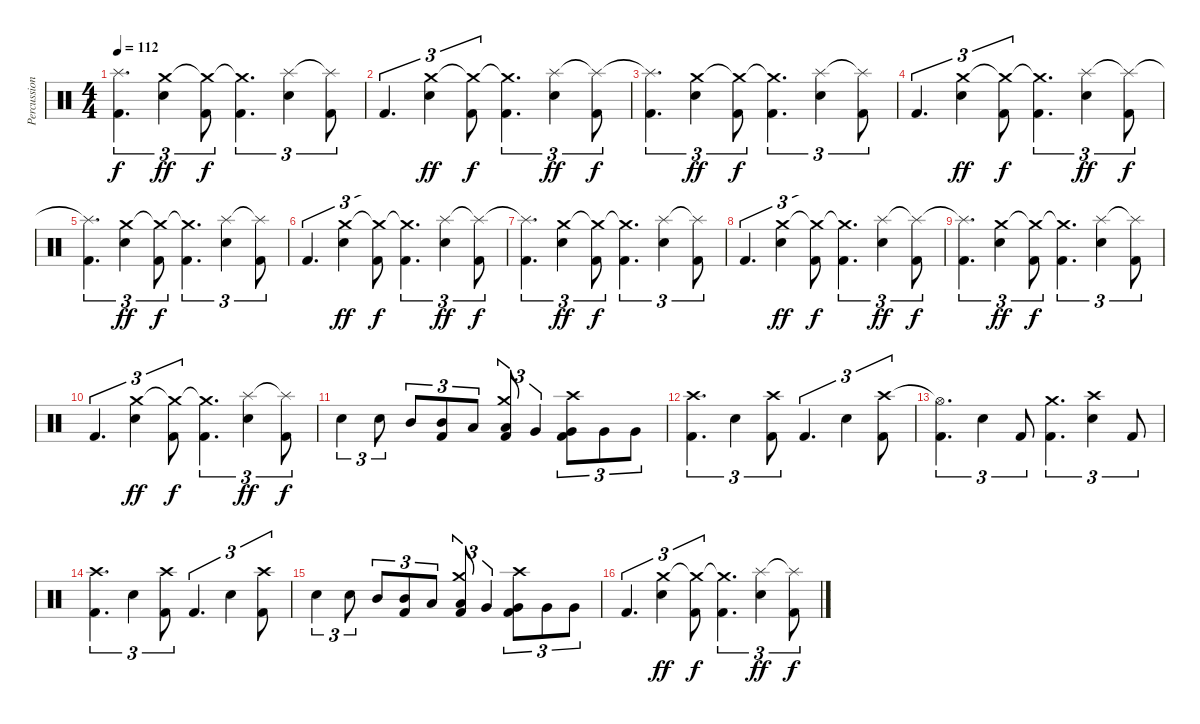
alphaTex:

\track ("Percussioni" "Percussion") {instrument percussion}
\staff {score}
\articulation defaults
\ts (4 4)
\tempo 112
\clef neutral
\ks c
("Splash (hit)"{t} "Kick (hit) 2").4{d tu (3 2) dy f} ("Crash medium (hit)" "Snare (hit) 2").4{tu (3 2) dy ff} ("Crash medium (hit)"{t} "Kick (hit) 2").8{tu (3 2) dy f} ("Crash medium (hit)"{t} "Kick (hit) 2").4{d tu (3 2)} ("Splash (hit)" "Snare (hit) 2").4{tu (3 2)} ("Splash (hit)"{t} "Kick (hit) 2").8{tu (3 2)} |
"Kick (hit) 2".4{d tu (3 2)} ("Crash medium (hit)" "Snare (hit) 2").4{tu (3 2) dy ff} ("Crash medium (hit)"{t} "Kick (hit) 2").8{tu (3 2) dy f} ("Crash medium (hit)"{t} "Kick (hit) 2").4{d tu (3 2)} ("Splash (hit)" "Snare (hit) 2").4{tu (3 2) dy ff} ("Splash (hit)"{t} "Kick (hit) 2").8{tu (3 2) dy f} |
("Splash (hit)"{t} "Kick (hit) 2").4{d tu (3 2)} ("Crash medium (hit)" "Snare (hit) 2").4{tu (3 2) dy ff} ("Crash medium (hit)"{t} "Kick (hit) 2").8{tu (3 2) dy f} ("Crash medium (hit)"{t} "Kick (hit) 2").4{d tu (3 2)} ("Splash (hit)" "Snare (hit) 2").4{tu (3 2)} ("Splash (hit)"{t} "Kick (hit) 2").8{tu (3 2)} |
"Kick (hit) 2".4{d tu (3 2)} ("Crash medium (hit)" "Snare (hit) 2").4{tu (3 2) dy ff} ("Crash medium (hit)"{t} "Kick (hit) 2").8{tu (3 2) dy f} ("Crash medium (hit)"{t} "Kick (hit) 2").4{d tu (3 2)} ("Splash (hit)" "Snare (hit) 2").4{tu (3 2) dy ff} ("Splash (hit)"{t} "Kick (hit) 2").8{tu (3 2) dy f} |
("Splash (hit)"{t} "Kick (hit) 2").4{d tu (3 2)} ("Crash medium (hit)" "Snare (hit) 2").4{tu (3 2) dy ff} ("Crash medium (hit)"{t} "Kick (hit) 2").8{tu (3 2) dy f} ("Crash medium (hit)"{t} "Kick (hit) 2").4{d tu (3 2)} ("Splash (hit)" "Snare (hit) 2").4{tu (3 2)} ("Splash (hit)"{t} "Kick (hit) 2").8{tu (3 2)} |
"Kick (hit) 2".4{d tu (3 2)} ("Crash medium (hit)" "Snare (hit) 2").4{tu (3 2) dy ff} ("Crash medium (hit)"{t} "Kick (hit) 2").8{tu (3 2) dy f} ("Crash medium (hit)"{t} "Kick (hit) 2").4{d tu (3 2)} ("Splash (hit)" "Snare (hit) 2").4{tu (3 2) dy ff} ("Splash (hit)"{t} "Kick (hit) 2").8{tu (3 2) dy f} |
("Splash (hit)"{t} "Kick (hit) 2").4{d tu (3 2)} ("Crash medium (hit)" "Snare (hit) 2").4{tu (3 2) dy ff} ("Crash medium (hit)"{t} "Kick (hit) 2").8{tu (3 2) dy f} ("Crash medium (hit)"{t} "Kick (hit) 2").4{d tu (3 2)} ("Splash (hit)" "Snare (hit) 2").4{tu (3 2)} ("Splash (hit)"{t} "Kick (hit) 2").8{tu (3 2)} |
"Kick (hit) 2".4{d tu (3 2)} ("Crash medium (hit)" "Snare (hit) 2").4{tu (3 2) dy ff} ("Crash medium (hit)"{t} "Kick (hit) 2").8{tu (3 2) dy f} ("Crash medium (hit)"{t} "Kick (hit) 2").4{d tu (3 2)} ("Splash (hit)" "Snare (hit) 2").4{tu (3 2) dy ff} ("Splash (hit)"{t} "Kick (hit) 2").8{tu (3 2) dy f} |
("Splash (hit)"{t} "Kick (hit) 2").4{d tu (3 2)} ("Crash medium (hit)" "Snare (hit) 2").4{tu (3 2) dy ff} ("Crash medium (hit)"{t} "Kick (hit) 2").8{tu (3 2) dy f} ("Crash medium (hit)"{t} "Kick (hit) 2").4{d tu (3 2)} ("Splash (hit)" "Snare (hit) 2").4{tu (3 2)} ("Splash (hit)"{t} "Kick (hit) 2").8{tu (3 2)} |
"Kick (hit) 2".4{d tu (3 2)} ("Crash medium (hit)" "Snare (hit) 2").4{tu (3 2) dy ff} ("Crash medium (hit)"{t} "Kick (hit) 2").8{tu (3 2) dy f} ("Crash medium (hit)"{t} "Kick (hit) 2").4{d tu (3 2)} ("Splash (hit)" "Snare (hit) 2").4{tu (3 2) dy ff} ("Splash (hit)"{t} "Kick (hit) 2").8{tu (3 2) dy f} |
"Snare (hit) 2".4{tu (3 2)} "Snare (hit) 2".8{tu (3 2)} "Mid Tom (hit)".8{tu (3 2)} ("Mid Tom (hit)" "Kick (hit) 2").8{tu (3 2)} "Low Tom (hit)".8{tu (3 2)} ("Crash medium (hit)" "Low Tom (hit)" "Kick (hit) 2").8{tu (3 2)} "Very Low Tom (hit)".4{tu (3 2)} ("Crash high (hit)" "Very Low Tom (hit)" "Kick (hit) 2").8{tu (3 2)} "Very Low Tom (hit)".8{tu (3 2)} "Very Low Tom (hit)".8{tu (3 2)} |
("Crash high (hit)" "Kick (hit) 2").4{d tu (3 2)} "Snare (hit) 2".4{tu (3 2)} ("Crash high (hit)" "Kick (hit) 2").8{tu (3 2)} "Kick (hit) 2".4{d tu (3 2)} "Snare (hit) 2".4{tu (3 2)} ("Crash high (hit)" "Kick (hit) 2").8{tu (3 2)} |
("Hi-Hat (open)"{t} "Kick (hit) 2").4{d tu (3 2)} "Snare (hit) 2".4{tu (3 2)} "Kick (hit) 2".8{tu (3 2)} ("Crash medium (hit)" "Kick (hit) 2").4{d tu (3 2)} ("Crash high (hit)" "Snare (hit) 2").4{tu (3 2)} "Kick (hit) 2".8{tu (3 2)} |
("Crash high (hit)" "Kick (hit) 2").4{d tu (3 2)} "Snare (hit) 2".4{tu (3 2)} ("Crash high (hit)" "Kick (hit) 2").8{tu (3 2)} "Kick (hit) 2".4{d tu (3 2)} "Snare (hit) 2".4{tu (3 2)} ("Crash high (hit)" "Kick (hit) 2").8{tu (3 2)} |
"Snare (hit) 2".4{tu (3 2)} "Snare (hit) 2".8{tu (3 2)} "Mid Tom (hit)".8{tu (3 2)} ("Mid Tom (hit)" "Kick (hit) 2").8{tu (3 2)} "Low Tom (hit)".8{tu (3 2)} ("Crash medium (hit)" "Low Tom (hit)" "Kick (hit) 2").8{tu (3 2)} "Very Low Tom (hit)".4{tu (3 2)} ("Crash high (hit)" "Very Low Tom (hit)" "Kick (hit) 2").8{tu (3 2)} "Very Low Tom (hit)".8{tu (3 2)} "Very Low Tom (hit)".8{tu (3 2)} |
"Kick (hit) 2".4{d tu (3 2)} ("Crash medium (hit)" "Snare (hit) 2").4{tu (3 2) dy ff} ("Crash medium (hit)"{t} "Kick (hit) 2").8{tu (3 2) dy f} ("Crash medium (hit)"{t} "Kick (hit) 2").4{d tu (3 2)} ("Splash (hit)" "Snare (hit) 2").4{tu (3 2) dy ff} ("Splash (hit)"{t} "Kick (hit) 2").8{tu (3 2) dy f}
